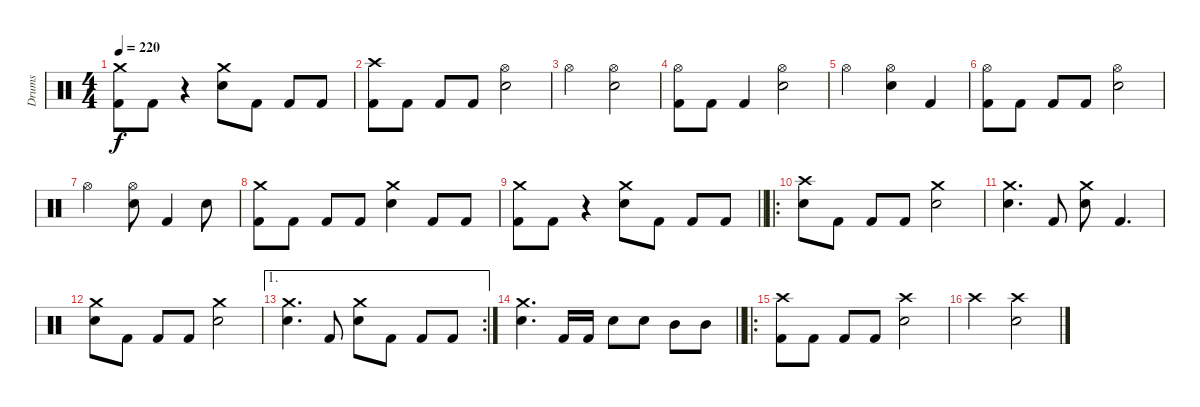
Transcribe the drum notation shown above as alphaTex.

\track ("Drums" "Drums") {instrument percussion}
\staff {score}
\articulation defaults
\ts (4 4)
\tempo 220
\clef neutral
\ks c
("Crash medium (hit)" "Kick (hit) 2").8{dy f} "Kick (hit) 2".8 r.4 ("Crash medium (hit)" "Snare (hit) 2").8 "Kick (hit) 2".8 "Kick (hit) 2".8 "Kick (hit) 2".8 |
("Crash high (hit)" "Kick (hit) 2").8 "Kick (hit) 2".8 "Kick (hit) 2".8 "Kick (hit) 2".8 ("Hi-Hat (open)" "Snare (hit) 2").2 |
"Hi-Hat (open)".2 ("Hi-Hat (open)" "Snare (hit) 2").2 |
("Hi-Hat (open)" "Kick (hit) 2").8 "Kick (hit) 2".8 "Kick (hit) 2".4 ("Hi-Hat (open)" "Snare (hit) 2").2 |
"Hi-Hat (open)".2 ("Hi-Hat (open)" "Snare (hit) 2").4 "Kick (hit) 2".4 |
("Hi-Hat (open)" "Kick (hit) 2").8 "Kick (hit) 2".8 "Kick (hit) 2".8 "Kick (hit) 2".8 ("Hi-Hat (open)" "Snare (hit) 2").2 |
"Hi-Hat (open)".2 ("Hi-Hat (open)" "Snare (hit) 2").8 "Kick (hit) 2".4 "Snare (hit) 2".8 |
("Crash medium (hit)" "Kick (hit) 2").8 "Kick (hit) 2".8 "Kick (hit) 2".8 "Kick (hit) 2".8 ("Crash medium (hit)" "Snare (hit) 2").4 "Kick (hit) 2".8 "Kick (hit) 2".8 |
\barLineRight lightlight
("Crash medium (hit)" "Kick (hit) 2").8 "Kick (hit) 2".8 r.4 ("Crash medium (hit)" "Snare (hit) 2").8 "Kick (hit) 2".8 "Kick (hit) 2".8 "Kick (hit) 2".8 |
\ro
("Crash high (hit)" "Snare (hit) 2").8 "Kick (hit) 2".8 "Kick (hit) 2".8 "Kick (hit) 2".8 ("Crash medium (hit)" "Snare (hit) 2").2 |
("Crash medium (hit)" "Snare (hit) 2").4{d} "Kick (hit) 2".8 ("Crash medium (hit)" "Snare (hit) 2").8 "Kick (hit) 2".4{d} |
("Crash medium (hit)" "Snare (hit) 2").8 "Kick (hit) 2".8 "Kick (hit) 2".8 "Kick (hit) 2".8 ("Crash medium (hit)" "Snare (hit) 2").2 |
\ae 1
\rc 2
("Crash medium (hit)" "Snare (hit) 2").4{d} "Kick (hit) 2".8 ("Crash medium (hit)" "Snare (hit) 2").8 "Kick (hit) 2".8 "Kick (hit) 2".8 "Kick (hit) 2".8 |
\barLineRight lightlight
("Crash medium (hit)" "Snare (hit) 2").4{d} "Kick (hit) 2".16 "Kick (hit) 2".16 "Snare (hit) 2".8 "Snare (hit) 2".8 "Mid Tom (hit)".8 "Mid Tom (hit)".8 |
\ro
("Crash high (hit)" "Kick (hit) 2").8 "Kick (hit) 2".8 "Kick (hit) 2".8 "Kick (hit) 2".8 ("Crash high (hit)" "Snare (hit) 2").2 |
"Crash high (hit)".2 ("Crash high (hit)" "Snare (hit) 2").2
